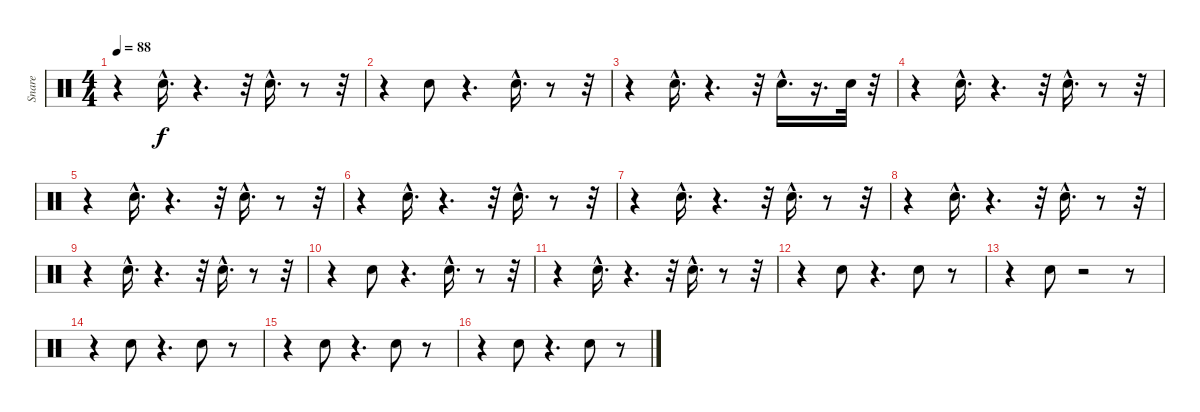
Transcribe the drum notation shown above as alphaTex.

\track ("Snare" "Snare") {instrument percussion}
\staff {score}
\articulation defaults
\ts (4 4)
\tempo 88
\clef neutral
\ks c
r.4{dy f} "Snare (hit) 2"{hac}.16{d} r.4{d} r.32 "Snare (hit) 2"{hac}.16{d} r.8 r.32 |
r.4 "Snare (hit) 2".8 r.4{d} "Snare (hit) 2"{hac}.16{d} r.8 r.32 |
r.4 "Snare (hit) 2"{hac}.16{d} r.4{d} r.32 "Snare (hit) 2"{hac}.16{d} r.16{d} "Snare (hit) 2".32 r.32 |
r.4 "Snare (hit) 2"{hac}.16{d} r.4{d} r.32 "Snare (hit) 2"{hac}.16{d} r.8 r.32 |
r.4 "Snare (hit) 2"{hac}.16{d} r.4{d} r.32 "Snare (hit) 2"{hac}.16{d} r.8 r.32 |
r.4 "Snare (hit) 2"{hac}.16{d} r.4{d} r.32 "Snare (hit) 2"{hac}.16{d} r.8 r.32 |
r.4 "Snare (hit) 2"{hac}.16{d} r.4{d} r.32 "Snare (hit) 2"{hac}.16{d} r.8 r.32 |
r.4 "Snare (hit) 2"{hac}.16{d} r.4{d} r.32 "Snare (hit) 2"{hac}.16{d} r.8 r.32 |
r.4 "Snare (hit) 2"{hac}.16{d} r.4{d} r.32 "Snare (hit) 2"{hac}.16{d} r.8 r.32 |
r.4 "Snare (hit) 2".8 r.4{d} "Snare (hit) 2"{hac}.16{d} r.8 r.32 |
r.4 "Snare (hit) 2"{hac}.16{d} r.4{d} r.32 "Snare (hit) 2"{hac}.16{d} r.8 r.32 |
r.4 "Snare (hit) 2".8 r.4{d} "Snare (hit) 2".8 r.8 |
r.4 "Snare (hit) 2".8 r.2 r.8 |
r.4 "Snare (hit) 2".8 r.4{d} "Snare (hit) 2".8 r.8 |
r.4 "Snare (hit) 2".8 r.4{d} "Snare (hit) 2".8 r.8 |
r.4 "Snare (hit) 2".8 r.4{d} "Snare (hit) 2".8 r.8
